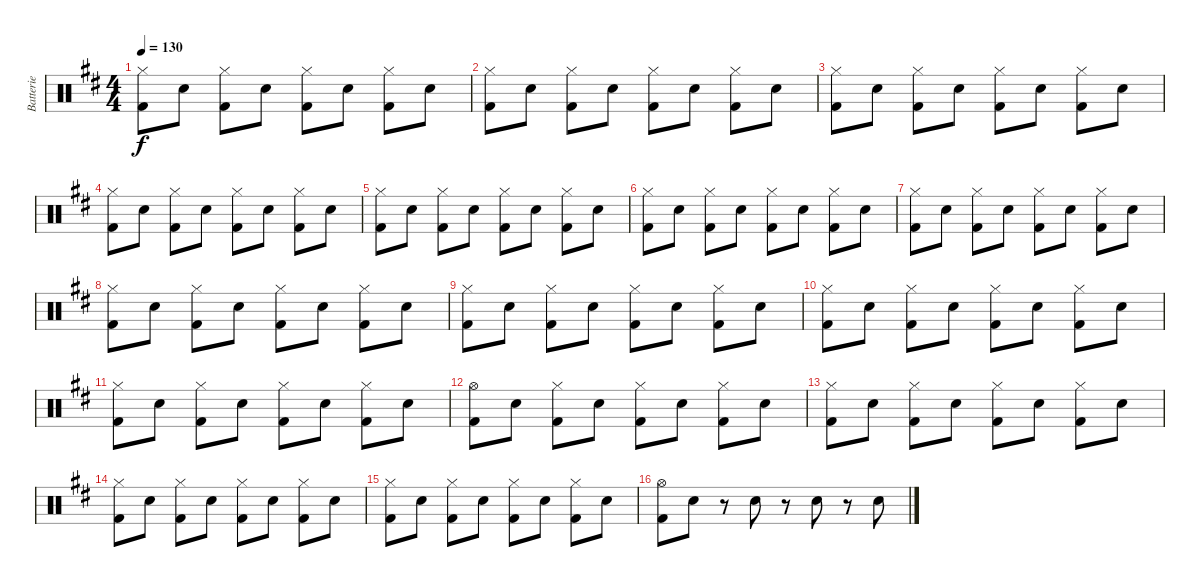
\track ("Batterie" "Batterie") {instrument percussion}
\staff {score}
\articulation defaults
\ts (4 4)
\tempo 130
\clef neutral
\ks d
("Hi-Hat (closed)" "Kick (hit) 2").8{dy f} "Snare (hit) 2".8 ("Hi-Hat (closed)" "Kick (hit) 2").8 "Snare (hit) 2".8 ("Hi-Hat (closed)" "Kick (hit) 2").8 "Snare (hit) 2".8 ("Hi-Hat (closed)" "Kick (hit) 2").8 "Snare (hit) 2".8 |
("Hi-Hat (closed)" "Kick (hit) 2").8 "Snare (hit) 2".8 ("Hi-Hat (closed)" "Kick (hit) 2").8 "Snare (hit) 2".8 ("Hi-Hat (closed)" "Kick (hit) 2").8 "Snare (hit) 2".8 ("Hi-Hat (closed)" "Kick (hit) 2").8 "Snare (hit) 2".8 |
("Hi-Hat (closed)" "Kick (hit) 2").8 "Snare (hit) 2".8 ("Hi-Hat (closed)" "Kick (hit) 2").8 "Snare (hit) 2".8 ("Hi-Hat (closed)" "Kick (hit) 2").8 "Snare (hit) 2".8 ("Hi-Hat (closed)" "Kick (hit) 2").8 "Snare (hit) 2".8 |
("Hi-Hat (closed)" "Kick (hit) 2").8 "Snare (hit) 2".8 ("Hi-Hat (closed)" "Kick (hit) 2").8 "Snare (hit) 2".8 ("Hi-Hat (closed)" "Kick (hit) 2").8 "Snare (hit) 2".8 ("Hi-Hat (closed)" "Kick (hit) 2").8 "Snare (hit) 2".8 |
("Hi-Hat (closed)" "Kick (hit) 2").8 "Snare (hit) 2".8 ("Hi-Hat (closed)" "Kick (hit) 2").8 "Snare (hit) 2".8 ("Hi-Hat (closed)" "Kick (hit) 2").8 "Snare (hit) 2".8 ("Hi-Hat (closed)" "Kick (hit) 2").8 "Snare (hit) 2".8 |
("Hi-Hat (closed)" "Kick (hit) 2").8 "Snare (hit) 2".8 ("Hi-Hat (closed)" "Kick (hit) 2").8 "Snare (hit) 2".8 ("Hi-Hat (closed)" "Kick (hit) 2").8 "Snare (hit) 2".8 ("Hi-Hat (closed)" "Kick (hit) 2").8 "Snare (hit) 2".8 |
("Hi-Hat (closed)" "Kick (hit) 2").8 "Snare (hit) 2".8 ("Hi-Hat (closed)" "Kick (hit) 2").8 "Snare (hit) 2".8 ("Hi-Hat (closed)" "Kick (hit) 2").8 "Snare (hit) 2".8 ("Hi-Hat (closed)" "Kick (hit) 2").8 "Snare (hit) 2".8 |
("Hi-Hat (closed)" "Kick (hit) 2").8 "Snare (hit) 2".8 ("Hi-Hat (closed)" "Kick (hit) 2").8 "Snare (hit) 2".8 ("Hi-Hat (closed)" "Kick (hit) 2").8 "Snare (hit) 2".8 ("Hi-Hat (closed)" "Kick (hit) 2").8 "Snare (hit) 2".8 |
("Hi-Hat (closed)" "Kick (hit) 2").8 "Snare (hit) 2".8 ("Hi-Hat (closed)" "Kick (hit) 2").8 "Snare (hit) 2".8 ("Hi-Hat (closed)" "Kick (hit) 2").8 "Snare (hit) 2".8 ("Hi-Hat (closed)" "Kick (hit) 2").8 "Snare (hit) 2".8 |
("Hi-Hat (closed)" "Kick (hit) 2").8 "Snare (hit) 2".8 ("Hi-Hat (closed)" "Kick (hit) 2").8 "Snare (hit) 2".8 ("Hi-Hat (closed)" "Kick (hit) 2").8 "Snare (hit) 2".8 ("Hi-Hat (closed)" "Kick (hit) 2").8 "Snare (hit) 2".8 |
("Hi-Hat (closed)" "Kick (hit) 2").8 "Snare (hit) 2".8 ("Hi-Hat (closed)" "Kick (hit) 2").8 "Snare (hit) 2".8 ("Hi-Hat (closed)" "Kick (hit) 2").8 "Snare (hit) 2".8 ("Hi-Hat (closed)" "Kick (hit) 2").8 "Snare (hit) 2".8 |
("Hi-Hat (open)" "Kick (hit) 2").8 "Snare (hit) 2".8 ("Hi-Hat (closed)" "Kick (hit) 2").8 "Snare (hit) 2".8 ("Hi-Hat (closed)" "Kick (hit) 2").8 "Snare (hit) 2".8 ("Hi-Hat (closed)" "Kick (hit) 2").8 "Snare (hit) 2".8 |
("Hi-Hat (closed)" "Kick (hit) 2").8 "Snare (hit) 2".8 ("Hi-Hat (closed)" "Kick (hit) 2").8 "Snare (hit) 2".8 ("Hi-Hat (closed)" "Kick (hit) 2").8 "Snare (hit) 2".8 ("Hi-Hat (closed)" "Kick (hit) 2").8 "Snare (hit) 2".8 |
("Hi-Hat (closed)" "Kick (hit) 2").8 "Snare (hit) 2".8 ("Hi-Hat (closed)" "Kick (hit) 2").8 "Snare (hit) 2".8 ("Hi-Hat (closed)" "Kick (hit) 2").8 "Snare (hit) 2".8 ("Hi-Hat (closed)" "Kick (hit) 2").8 "Snare (hit) 2".8 |
("Hi-Hat (closed)" "Kick (hit) 2").8 "Snare (hit) 2".8 ("Hi-Hat (closed)" "Kick (hit) 2").8 "Snare (hit) 2".8 ("Hi-Hat (closed)" "Kick (hit) 2").8 "Snare (hit) 2".8 ("Hi-Hat (closed)" "Kick (hit) 2").8 "Snare (hit) 2".8 |
("Hi-Hat (open)" "Kick (hit) 2").8 "Snare (hit) 2".8 r.8 "Snare (hit) 2".8 r.8 "Snare (hit) 2".8 r.8 "Snare (hit) 2".8
